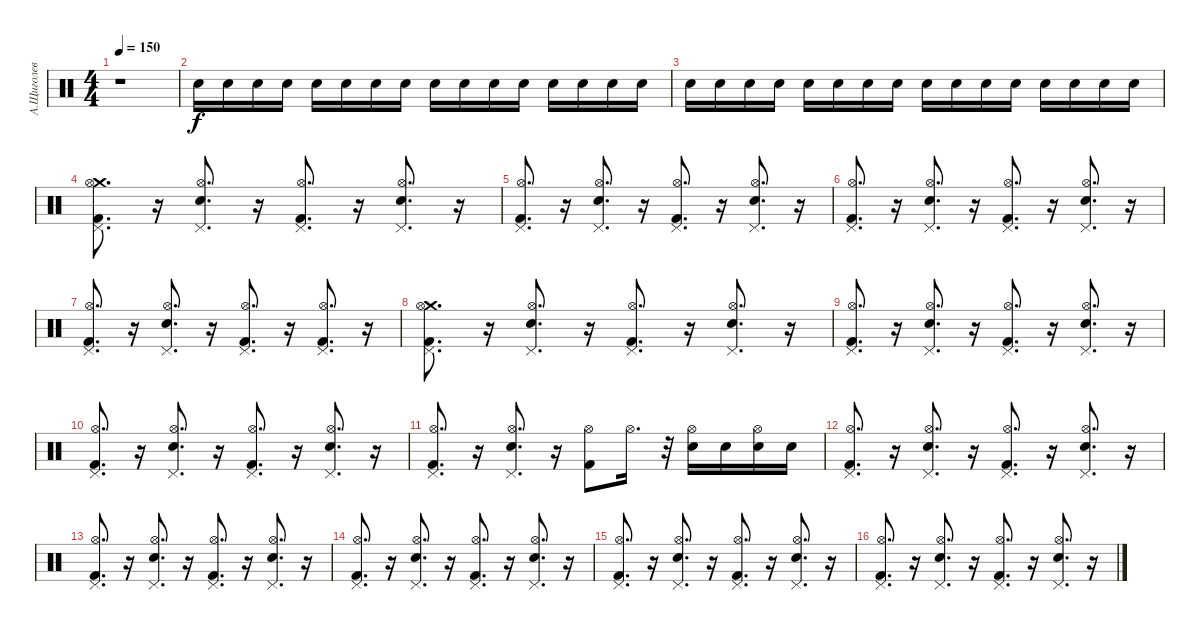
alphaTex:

\track ("А.Щиголев" "А.Щиголев") {instrument percussion}
\staff {score}
\articulation defaults
\ts (4 4)
\tempo 150
\clef neutral
\ks c
r.1{dy f} |
"Snare (hit) 2".16 "Snare (hit) 2".16 "Snare (hit) 2".16 "Snare (hit) 2".16 "Snare (hit) 2".16 "Snare (hit) 2".16 "Snare (hit) 2".16 "Snare (hit) 2".16 "Snare (hit) 2".16 "Snare (hit) 2".16 "Snare (hit) 2".16 "Snare (hit) 2".16 "Snare (hit) 2".16 "Snare (hit) 2".16 "Snare (hit) 2".16 "Snare (hit) 2".16 |
"Snare (hit) 2".16 "Snare (hit) 2".16 "Snare (hit) 2".16 "Snare (hit) 2".16 "Snare (hit) 2".16 "Snare (hit) 2".16 "Snare (hit) 2".16 "Snare (hit) 2".16 "Snare (hit) 2".16 "Snare (hit) 2".16 "Snare (hit) 2".16 "Snare (hit) 2".16 "Snare (hit) 2".16 "Snare (hit) 2".16 "Snare (hit) 2".16 "Snare (hit) 2".16 |
("Crash medium (hit)" "Kick (hit) 2" "Hi-Hat (open)" "Pedal Hi-Hat (hit)").8{d} r.16 ("Snare (hit) 2" "Hi-Hat (open)" "Pedal Hi-Hat (hit)").8{d} r.16 ("Kick (hit) 2" "Hi-Hat (open)" "Pedal Hi-Hat (hit)").8{d} r.16 ("Snare (hit) 2" "Hi-Hat (open)" "Pedal Hi-Hat (hit)").8{d} r.16 |
("Kick (hit) 2" "Hi-Hat (open)" "Pedal Hi-Hat (hit)").8{d} r.16 ("Snare (hit) 2" "Hi-Hat (open)" "Pedal Hi-Hat (hit)").8{d} r.16 ("Kick (hit) 2" "Hi-Hat (open)" "Pedal Hi-Hat (hit)").8{d} r.16 ("Snare (hit) 2" "Hi-Hat (open)" "Pedal Hi-Hat (hit)").8{d} r.16 |
("Kick (hit) 2" "Hi-Hat (open)" "Pedal Hi-Hat (hit)").8{d} r.16 ("Snare (hit) 2" "Hi-Hat (open)" "Pedal Hi-Hat (hit)").8{d} r.16 ("Kick (hit) 2" "Hi-Hat (open)" "Pedal Hi-Hat (hit)").8{d} r.16 ("Snare (hit) 2" "Hi-Hat (open)" "Pedal Hi-Hat (hit)").8{d} r.16 |
("Kick (hit) 2" "Hi-Hat (open)" "Pedal Hi-Hat (hit)").8{d} r.16 ("Snare (hit) 2" "Hi-Hat (open)" "Pedal Hi-Hat (hit)").8{d} r.16 ("Kick (hit) 2" "Hi-Hat (open)" "Pedal Hi-Hat (hit)").8{d} r.16 ("Kick (hit) 2" "Hi-Hat (open)" "Pedal Hi-Hat (hit)").8{d} r.16 |
("Crash medium (hit)" "Kick (hit) 2" "Hi-Hat (open)" "Pedal Hi-Hat (hit)").8{d} r.16 ("Snare (hit) 2" "Hi-Hat (open)" "Pedal Hi-Hat (hit)").8{d} r.16 ("Kick (hit) 2" "Hi-Hat (open)" "Pedal Hi-Hat (hit)").8{d} r.16 ("Snare (hit) 2" "Hi-Hat (open)" "Pedal Hi-Hat (hit)").8{d} r.16 |
("Kick (hit) 2" "Hi-Hat (open)" "Pedal Hi-Hat (hit)").8{d} r.16 ("Snare (hit) 2" "Hi-Hat (open)" "Pedal Hi-Hat (hit)").8{d} r.16 ("Kick (hit) 2" "Hi-Hat (open)" "Pedal Hi-Hat (hit)").8{d} r.16 ("Snare (hit) 2" "Hi-Hat (open)" "Pedal Hi-Hat (hit)").8{d} r.16 |
("Kick (hit) 2" "Hi-Hat (open)" "Pedal Hi-Hat (hit)").8{d} r.16 ("Snare (hit) 2" "Hi-Hat (open)" "Pedal Hi-Hat (hit)").8{d} r.16 ("Kick (hit) 2" "Hi-Hat (open)" "Pedal Hi-Hat (hit)").8{d} r.16 ("Snare (hit) 2" "Hi-Hat (open)" "Pedal Hi-Hat (hit)").8{d} r.16 |
("Kick (hit) 2" "Hi-Hat (open)" "Pedal Hi-Hat (hit)").8{d} r.16 ("Snare (hit) 2" "Hi-Hat (open)" "Pedal Hi-Hat (hit)").8{d} r.16 ("Hi-Hat (open)" "Kick (hit) 2").8 "Hi-Hat (open)".16{d} r.32 ("Snare (hit) 2" "Hi-Hat (open)").16 "Snare (hit) 2".16 ("Snare (hit) 2" "Hi-Hat (open)").16 "Snare (hit) 2".16 |
("Kick (hit) 2" "Hi-Hat (open)" "Pedal Hi-Hat (hit)").8{d} r.16 ("Snare (hit) 2" "Hi-Hat (open)" "Pedal Hi-Hat (hit)").8{d} r.16 ("Kick (hit) 2" "Hi-Hat (open)" "Pedal Hi-Hat (hit)").8{d} r.16 ("Snare (hit) 2" "Hi-Hat (open)" "Pedal Hi-Hat (hit)").8{d} r.16 |
("Kick (hit) 2" "Hi-Hat (open)" "Pedal Hi-Hat (hit)").8{d} r.16 ("Snare (hit) 2" "Hi-Hat (open)" "Pedal Hi-Hat (hit)").8{d} r.16 ("Kick (hit) 2" "Hi-Hat (open)" "Pedal Hi-Hat (hit)").8{d} r.16 ("Snare (hit) 2" "Hi-Hat (open)" "Pedal Hi-Hat (hit)").8{d} r.16 |
("Kick (hit) 2" "Hi-Hat (open)" "Pedal Hi-Hat (hit)").8{d} r.16 ("Snare (hit) 2" "Hi-Hat (open)" "Pedal Hi-Hat (hit)").8{d} r.16 ("Kick (hit) 2" "Hi-Hat (open)" "Pedal Hi-Hat (hit)").8{d} r.16 ("Snare (hit) 2" "Hi-Hat (open)" "Pedal Hi-Hat (hit)").8{d} r.16 |
("Kick (hit) 2" "Hi-Hat (open)" "Pedal Hi-Hat (hit)").8{d} r.16 ("Snare (hit) 2" "Hi-Hat (open)" "Pedal Hi-Hat (hit)").8{d} r.16 ("Kick (hit) 2" "Hi-Hat (open)" "Pedal Hi-Hat (hit)").8{d} r.16 ("Snare (hit) 2" "Hi-Hat (open)" "Pedal Hi-Hat (hit)").8{d} r.16 |
("Kick (hit) 2" "Hi-Hat (open)" "Pedal Hi-Hat (hit)").8{d} r.16 ("Snare (hit) 2" "Hi-Hat (open)" "Pedal Hi-Hat (hit)").8{d} r.16 ("Kick (hit) 2" "Hi-Hat (open)" "Pedal Hi-Hat (hit)").8{d} r.16 ("Snare (hit) 2" "Hi-Hat (open)" "Pedal Hi-Hat (hit)").8{d} r.16
